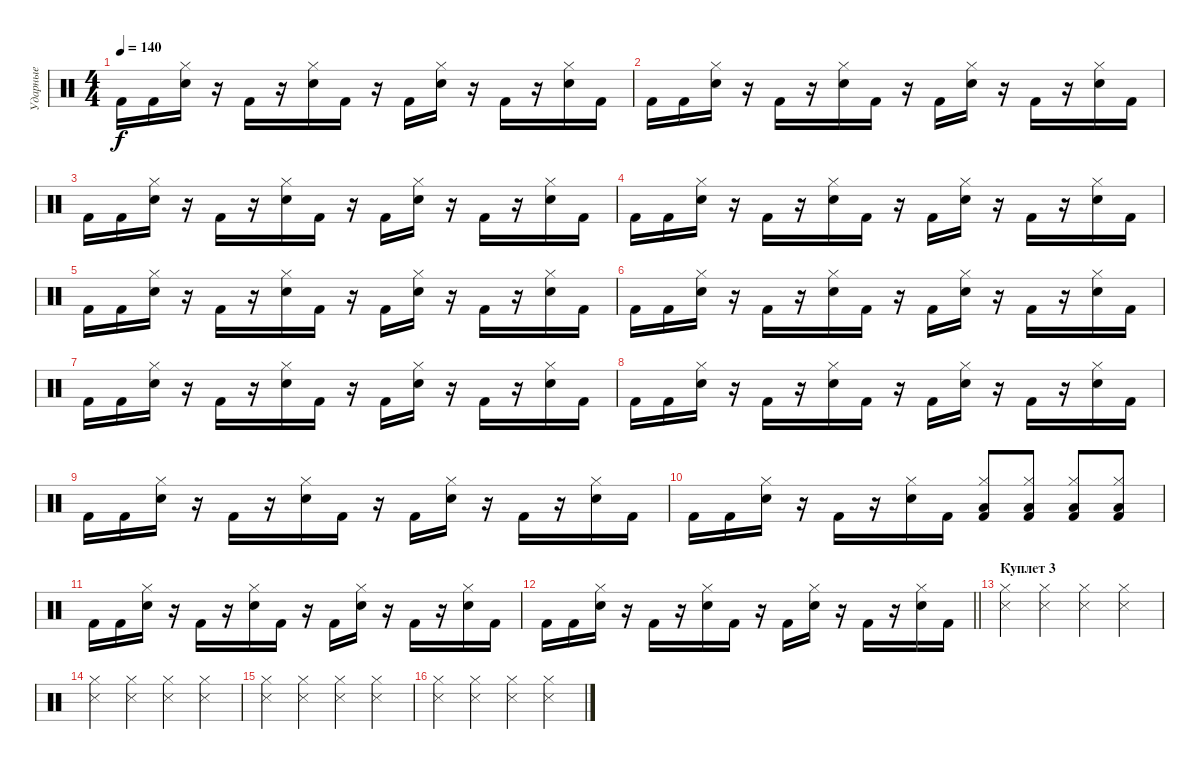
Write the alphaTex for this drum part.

\track ("Ударные" "Ударные") {instrument percussion}
\staff {score}
\articulation defaults
\ts (4 4)
\tempo 140
\clef neutral
\ks c "Kick (hit) 2".16{dy f} "Kick (hit) 2".16
("Snare (hit) 2" "Hi-Hat (closed)").16 r.16 "Kick (hit) 2".16 r.16 ("Snare (hit) 2" "Hi-Hat (closed)").16 "Kick (hit) 2".16 r.16 "Kick (hit) 2".16 ("Snare (hit) 2" "Hi-Hat (closed)").16 r.16 "Kick (hit) 2".16 r.16 ("Snare (hit) 2" "Hi-Hat (closed)").16 "Kick (hit) 2".16 |
"Kick (hit) 2".16 "Kick (hit) 2".16 ("Snare (hit) 2" "Hi-Hat (closed)").16 r.16 "Kick (hit) 2".16 r.16 ("Snare (hit) 2" "Hi-Hat (closed)").16 "Kick (hit) 2".16 r.16 "Kick (hit) 2".16 ("Snare (hit) 2" "Hi-Hat (closed)").16 r.16 "Kick (hit) 2".16 r.16 ("Snare (hit) 2" "Hi-Hat (closed)").16 "Kick (hit) 2".16 |
"Kick (hit) 2".16 "Kick (hit) 2".16 ("Snare (hit) 2" "Hi-Hat (closed)").16 r.16 "Kick (hit) 2".16 r.16 ("Snare (hit) 2" "Hi-Hat (closed)").16 "Kick (hit) 2".16 r.16 "Kick (hit) 2".16 ("Snare (hit) 2" "Hi-Hat (closed)").16 r.16 "Kick (hit) 2".16 r.16 ("Snare (hit) 2" "Hi-Hat (closed)").16 "Kick (hit) 2".16 |
"Kick (hit) 2".16 "Kick (hit) 2".16 ("Snare (hit) 2" "Hi-Hat (closed)").16 r.16 "Kick (hit) 2".16 r.16 ("Snare (hit) 2" "Hi-Hat (closed)").16 "Kick (hit) 2".16 r.16 "Kick (hit) 2".16 ("Snare (hit) 2" "Hi-Hat (closed)").16 r.16 "Kick (hit) 2".16 r.16 ("Snare (hit) 2" "Hi-Hat (closed)").16 "Kick (hit) 2".16 |
"Kick (hit) 2".16{volume 16} "Kick (hit) 2".16 ("Snare (hit) 2" "Hi-Hat (closed)").16 r.16 "Kick (hit) 2".16 r.16 ("Snare (hit) 2" "Hi-Hat (closed)").16 "Kick (hit) 2".16 r.16 "Kick (hit) 2".16 ("Snare (hit) 2" "Hi-Hat (closed)").16 r.16 "Kick (hit) 2".16 r.16 ("Snare (hit) 2" "Hi-Hat (closed)").16 "Kick (hit) 2".16 |
"Kick (hit) 2".16 "Kick (hit) 2".16 ("Snare (hit) 2" "Hi-Hat (closed)").16 r.16 "Kick (hit) 2".16 r.16 ("Snare (hit) 2" "Hi-Hat (closed)").16 "Kick (hit) 2".16 r.16 "Kick (hit) 2".16 ("Snare (hit) 2" "Hi-Hat (closed)").16 r.16 "Kick (hit) 2".16 r.16 ("Snare (hit) 2" "Hi-Hat (closed)").16 "Kick (hit) 2".16 |
"Kick (hit) 2".16{volume 16} "Kick (hit) 2".16 ("Snare (hit) 2" "Hi-Hat (closed)").16 r.16 "Kick (hit) 2".16 r.16 ("Snare (hit) 2" "Hi-Hat (closed)").16 "Kick (hit) 2".16 r.16 "Kick (hit) 2".16 ("Snare (hit) 2" "Hi-Hat (closed)").16 r.16 "Kick (hit) 2".16 r.16 ("Snare (hit) 2" "Hi-Hat (closed)").16 "Kick (hit) 2".16 |
"Kick (hit) 2".16 "Kick (hit) 2".16 ("Snare (hit) 2" "Hi-Hat (closed)").16 r.16 "Kick (hit) 2".16 r.16 ("Snare (hit) 2" "Hi-Hat (closed)").16 "Kick (hit) 2".16 r.16 "Kick (hit) 2".16 ("Snare (hit) 2" "Hi-Hat (closed)").16 r.16 "Kick (hit) 2".16 r.16 ("Snare (hit) 2" "Hi-Hat (closed)").16 "Kick (hit) 2".16 |
"Kick (hit) 2".16{volume 16} "Kick (hit) 2".16 ("Snare (hit) 2" "Hi-Hat (closed)").16 r.16 "Kick (hit) 2".16 r.16 ("Snare (hit) 2" "Hi-Hat (closed)").16 "Kick (hit) 2".16 r.16 "Kick (hit) 2".16 ("Snare (hit) 2" "Hi-Hat (closed)").16 r.16 "Kick (hit) 2".16 r.16 ("Snare (hit) 2" "Hi-Hat (closed)").16 "Kick (hit) 2".16 |
"Kick (hit) 2".16 "Kick (hit) 2".16 ("Snare (hit) 2" "Hi-Hat (closed)").16 r.16 "Kick (hit) 2".16 r.16 ("Snare (hit) 2" "Hi-Hat (closed)").16 "Kick (hit) 2".16 ("Kick (hit) 2" "Hi-Hat (closed)" "Low Tom (hit)").8 ("Kick (hit) 2" "Hi-Hat (closed)" "Low Tom (hit)").8 ("Kick (hit) 2" "Hi-Hat (closed)" "Low Tom (hit)").8 ("Kick (hit) 2" "Hi-Hat (closed)" "Low Tom (hit)").8 |
"Kick (hit) 2".16 "Kick (hit) 2".16 ("Snare (hit) 2" "Hi-Hat (closed)").16 r.16 "Kick (hit) 2".16 r.16 ("Snare (hit) 2" "Hi-Hat (closed)").16 "Kick (hit) 2".16 r.16 "Kick (hit) 2".16 ("Snare (hit) 2" "Hi-Hat (closed)").16 r.16 "Kick (hit) 2".16 r.16 ("Snare (hit) 2" "Hi-Hat (closed)").16 "Kick (hit) 2".16 |
\barLineRight lightlight "Kick (hit) 2".16 "Kick (hit) 2".16
("Snare (hit) 2" "Hi-Hat (closed)").16 r.16 "Kick (hit) 2".16 r.16 ("Snare (hit) 2" "Hi-Hat (closed)").16 "Kick (hit) 2".16 r.16 "Kick (hit) 2".16 ("Snare (hit) 2" "Hi-Hat (closed)").16 r.16 "Kick (hit) 2".16 r.16 ("Snare (hit) 2" "Hi-Hat (closed)").16 "Kick (hit) 2".16 |
\section ("" "Куплет 3")
("Hi-Hat (closed)" "Snare (side stick) 3").4 ("Hi-Hat (closed)" "Snare (side stick) 3").4 ("Hi-Hat (closed)" "Snare (side stick) 3").4 ("Hi-Hat (closed)" "Snare (side stick) 3").4 |
("Hi-Hat (closed)" "Snare (side stick) 3").4 ("Hi-Hat (closed)" "Snare (side stick) 3").4 ("Hi-Hat (closed)" "Snare (side stick) 3").4 ("Hi-Hat (closed)" "Snare (side stick) 3").4 |
("Hi-Hat (closed)" "Snare (side stick) 3").4 ("Hi-Hat (closed)" "Snare (side stick) 3").4 ("Hi-Hat (closed)" "Snare (side stick) 3").4 ("Hi-Hat (closed)" "Snare (side stick) 3").4 |
("Hi-Hat (closed)" "Snare (side stick) 3").4 ("Hi-Hat (closed)" "Snare (side stick) 3").4 ("Hi-Hat (closed)" "Snare (side stick) 3").4 ("Hi-Hat (closed)" "Snare (side stick) 3").4
